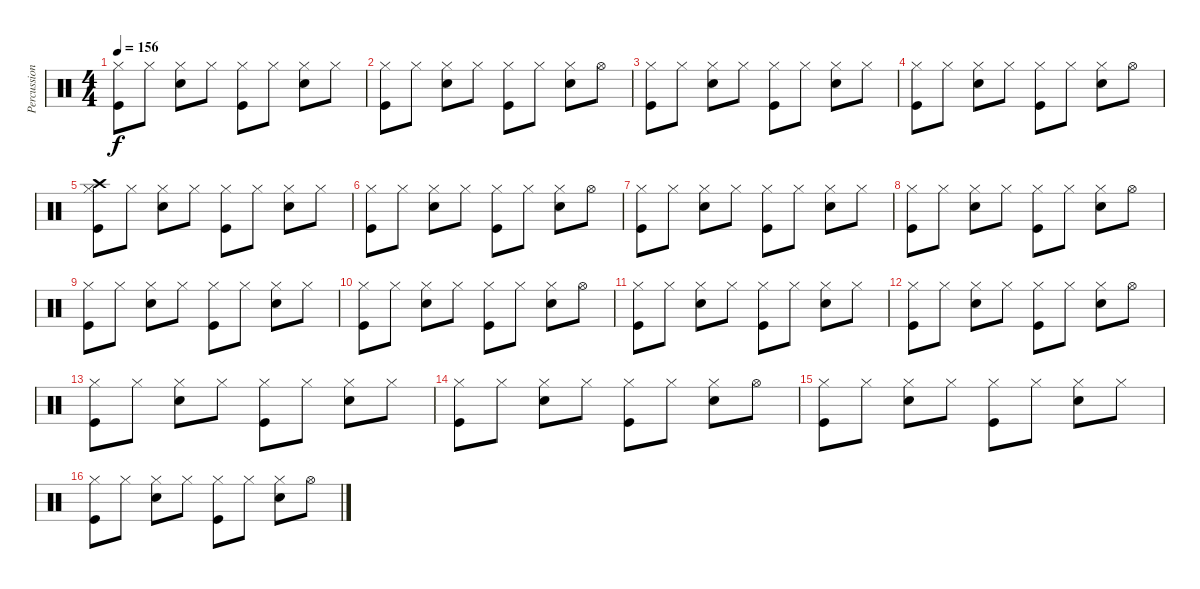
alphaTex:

\track ("Percussion" "Percussion") {instrument percussion}
\staff {score}
\articulation defaults
\ts (4 4)
\tempo 156
\clef neutral
\ks c
("Kick (hit)" "Hi-Hat (closed)").8{dy f} "Hi-Hat (closed)".8 ("Electric Snare (hit)" "Hi-Hat (closed)").8 "Hi-Hat (closed)".8 ("Kick (hit)" "Hi-Hat (closed)").8 "Hi-Hat (closed)".8 ("Electric Snare (hit)" "Hi-Hat (closed)").8 "Hi-Hat (closed)".8 |
("Kick (hit)" "Hi-Hat (closed)").8 "Hi-Hat (closed)".8 ("Electric Snare (hit)" "Hi-Hat (closed)").8 "Hi-Hat (closed)".8 ("Kick (hit)" "Hi-Hat (closed)").8 "Hi-Hat (closed)".8 ("Electric Snare (hit)" "Hi-Hat (closed)").8 "Hi-Hat (open)".8 |
("Kick (hit)" "Hi-Hat (closed)").8 "Hi-Hat (closed)".8 ("Electric Snare (hit)" "Hi-Hat (closed)").8 "Hi-Hat (closed)".8 ("Kick (hit)" "Hi-Hat (closed)").8 "Hi-Hat (closed)".8 ("Electric Snare (hit)" "Hi-Hat (closed)").8 "Hi-Hat (closed)".8 |
("Kick (hit)" "Hi-Hat (closed)").8 "Hi-Hat (closed)".8 ("Electric Snare (hit)" "Hi-Hat (closed)").8 "Hi-Hat (closed)".8 ("Kick (hit)" "Hi-Hat (closed)").8 "Hi-Hat (closed)".8 ("Electric Snare (hit)" "Hi-Hat (closed)").8 "Hi-Hat (open)".8 |
("Kick (hit)" "Hi-Hat (closed)" "Crash high (hit)").8 "Hi-Hat (closed)".8 ("Electric Snare (hit)" "Hi-Hat (closed)").8 "Hi-Hat (closed)".8 ("Kick (hit)" "Hi-Hat (closed)").8 "Hi-Hat (closed)".8 ("Electric Snare (hit)" "Hi-Hat (closed)").8 "Hi-Hat (closed)".8 |
("Kick (hit)" "Hi-Hat (closed)").8 "Hi-Hat (closed)".8 ("Electric Snare (hit)" "Hi-Hat (closed)").8 "Hi-Hat (closed)".8 ("Kick (hit)" "Hi-Hat (closed)").8 "Hi-Hat (closed)".8 ("Electric Snare (hit)" "Hi-Hat (closed)").8 "Hi-Hat (open)".8 |
("Kick (hit)" "Hi-Hat (closed)").8 "Hi-Hat (closed)".8 ("Electric Snare (hit)" "Hi-Hat (closed)").8 "Hi-Hat (closed)".8 ("Kick (hit)" "Hi-Hat (closed)").8 "Hi-Hat (closed)".8 ("Electric Snare (hit)" "Hi-Hat (closed)").8 "Hi-Hat (closed)".8 |
("Kick (hit)" "Hi-Hat (closed)").8 "Hi-Hat (closed)".8 ("Electric Snare (hit)" "Hi-Hat (closed)").8 "Hi-Hat (closed)".8 ("Kick (hit)" "Hi-Hat (closed)").8 "Hi-Hat (closed)".8 ("Electric Snare (hit)" "Hi-Hat (closed)").8 "Hi-Hat (open)".8 |
("Kick (hit)" "Hi-Hat (closed)").8 "Hi-Hat (closed)".8 ("Electric Snare (hit)" "Hi-Hat (closed)").8 "Hi-Hat (closed)".8 ("Kick (hit)" "Hi-Hat (closed)").8 "Hi-Hat (closed)".8 ("Electric Snare (hit)" "Hi-Hat (closed)").8 "Hi-Hat (closed)".8 |
("Kick (hit)" "Hi-Hat (closed)").8 "Hi-Hat (closed)".8 ("Electric Snare (hit)" "Hi-Hat (closed)").8 "Hi-Hat (closed)".8 ("Kick (hit)" "Hi-Hat (closed)").8 "Hi-Hat (closed)".8 ("Electric Snare (hit)" "Hi-Hat (closed)").8 "Hi-Hat (open)".8 |
("Kick (hit)" "Hi-Hat (closed)").8 "Hi-Hat (closed)".8 ("Electric Snare (hit)" "Hi-Hat (closed)").8 "Hi-Hat (closed)".8 ("Kick (hit)" "Hi-Hat (closed)").8 "Hi-Hat (closed)".8 ("Electric Snare (hit)" "Hi-Hat (closed)").8 "Hi-Hat (closed)".8 |
("Kick (hit)" "Hi-Hat (closed)").8 "Hi-Hat (closed)".8 ("Electric Snare (hit)" "Hi-Hat (closed)").8 "Hi-Hat (closed)".8 ("Kick (hit)" "Hi-Hat (closed)").8 "Hi-Hat (closed)".8 ("Electric Snare (hit)" "Hi-Hat (closed)").8 "Hi-Hat (open)".8 |
("Kick (hit)" "Hi-Hat (closed)").8 "Hi-Hat (closed)".8 ("Electric Snare (hit)" "Hi-Hat (closed)").8 "Hi-Hat (closed)".8 ("Kick (hit)" "Hi-Hat (closed)").8 "Hi-Hat (closed)".8 ("Electric Snare (hit)" "Hi-Hat (closed)").8 "Hi-Hat (closed)".8 |
("Kick (hit)" "Hi-Hat (closed)").8 "Hi-Hat (closed)".8 ("Electric Snare (hit)" "Hi-Hat (closed)").8 "Hi-Hat (closed)".8 ("Kick (hit)" "Hi-Hat (closed)").8 "Hi-Hat (closed)".8 ("Electric Snare (hit)" "Hi-Hat (closed)").8 "Hi-Hat (open)".8 |
("Kick (hit)" "Hi-Hat (closed)").8 "Hi-Hat (closed)".8 ("Electric Snare (hit)" "Hi-Hat (closed)").8 "Hi-Hat (closed)".8 ("Kick (hit)" "Hi-Hat (closed)").8 "Hi-Hat (closed)".8 ("Electric Snare (hit)" "Hi-Hat (closed)").8 "Hi-Hat (closed)".8 |
("Kick (hit)" "Hi-Hat (closed)").8 "Hi-Hat (closed)".8 ("Electric Snare (hit)" "Hi-Hat (closed)").8 "Hi-Hat (closed)".8 ("Kick (hit)" "Hi-Hat (closed)").8 "Hi-Hat (closed)".8 ("Electric Snare (hit)" "Hi-Hat (closed)").8 "Hi-Hat (open)".8
